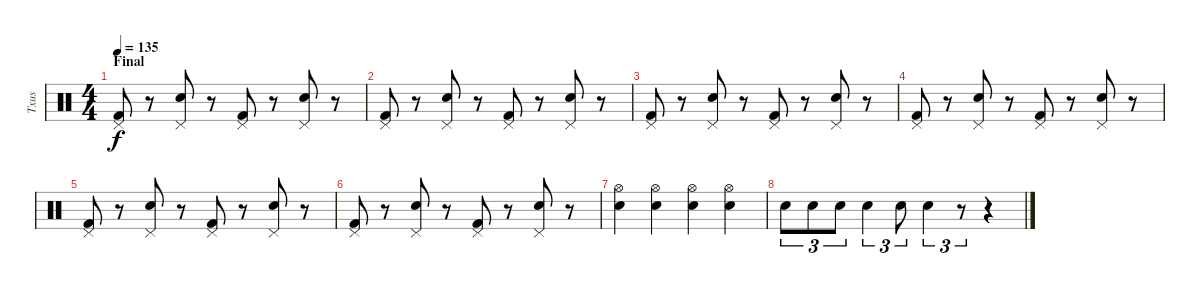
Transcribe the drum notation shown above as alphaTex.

\track ("Txus" "Txus") {instrument percussion}
\staff {score}
\articulation defaults
\ts (4 4)
\section ("" "Final")
\tempo 135
\clef neutral
\ks c
("Pedal Hi-Hat (hit)" "Kick (hit) 2").8{dy f} r.8 ("Pedal Hi-Hat (hit)" "Snare (hit) 2").8 r.8 ("Pedal Hi-Hat (hit)" "Kick (hit) 2").8 r.8 ("Pedal Hi-Hat (hit)" "Snare (hit) 2").8 r.8 |
("Pedal Hi-Hat (hit)" "Kick (hit) 2").8 r.8 ("Pedal Hi-Hat (hit)" "Snare (hit) 2").8 r.8 ("Pedal Hi-Hat (hit)" "Kick (hit) 2").8 r.8 ("Pedal Hi-Hat (hit)" "Snare (hit) 2").8 r.8 |
("Pedal Hi-Hat (hit)" "Kick (hit) 2").8 r.8 ("Pedal Hi-Hat (hit)" "Snare (hit) 2").8 r.8 ("Pedal Hi-Hat (hit)" "Kick (hit) 2").8 r.8 ("Pedal Hi-Hat (hit)" "Snare (hit) 2").8 r.8 |
("Pedal Hi-Hat (hit)" "Kick (hit) 2").8 r.8 ("Pedal Hi-Hat (hit)" "Snare (hit) 2").8 r.8 ("Pedal Hi-Hat (hit)" "Kick (hit) 2").8 r.8 ("Pedal Hi-Hat (hit)" "Snare (hit) 2").8 r.8 |
("Pedal Hi-Hat (hit)" "Kick (hit) 2").8 r.8 ("Pedal Hi-Hat (hit)" "Snare (hit) 2").8 r.8 ("Pedal Hi-Hat (hit)" "Kick (hit) 2").8 r.8 ("Pedal Hi-Hat (hit)" "Snare (hit) 2").8 r.8 |
("Pedal Hi-Hat (hit)" "Kick (hit) 2").8 r.8 ("Pedal Hi-Hat (hit)" "Snare (hit) 2").8 r.8 ("Pedal Hi-Hat (hit)" "Kick (hit) 2").8 r.8 ("Pedal Hi-Hat (hit)" "Snare (hit) 2").8 r.8 |
("Hi-Hat (open)" "Snare (hit) 2").4 ("Hi-Hat (open)" "Snare (hit) 2").4 ("Hi-Hat (open)" "Snare (hit) 2").4 ("Hi-Hat (open)" "Snare (hit) 2").4 |
"Snare (hit) 2".8{tu (3 2)} "Snare (hit) 2".8{tu (3 2)} "Snare (hit) 2".8{tu (3 2)} "Snare (hit) 2".4{tu (3 2)} "Snare (hit) 2".8{tu (3 2)} "Snare (hit) 2".4{tu (3 2)} r.8{tu (3 2)} r.4
